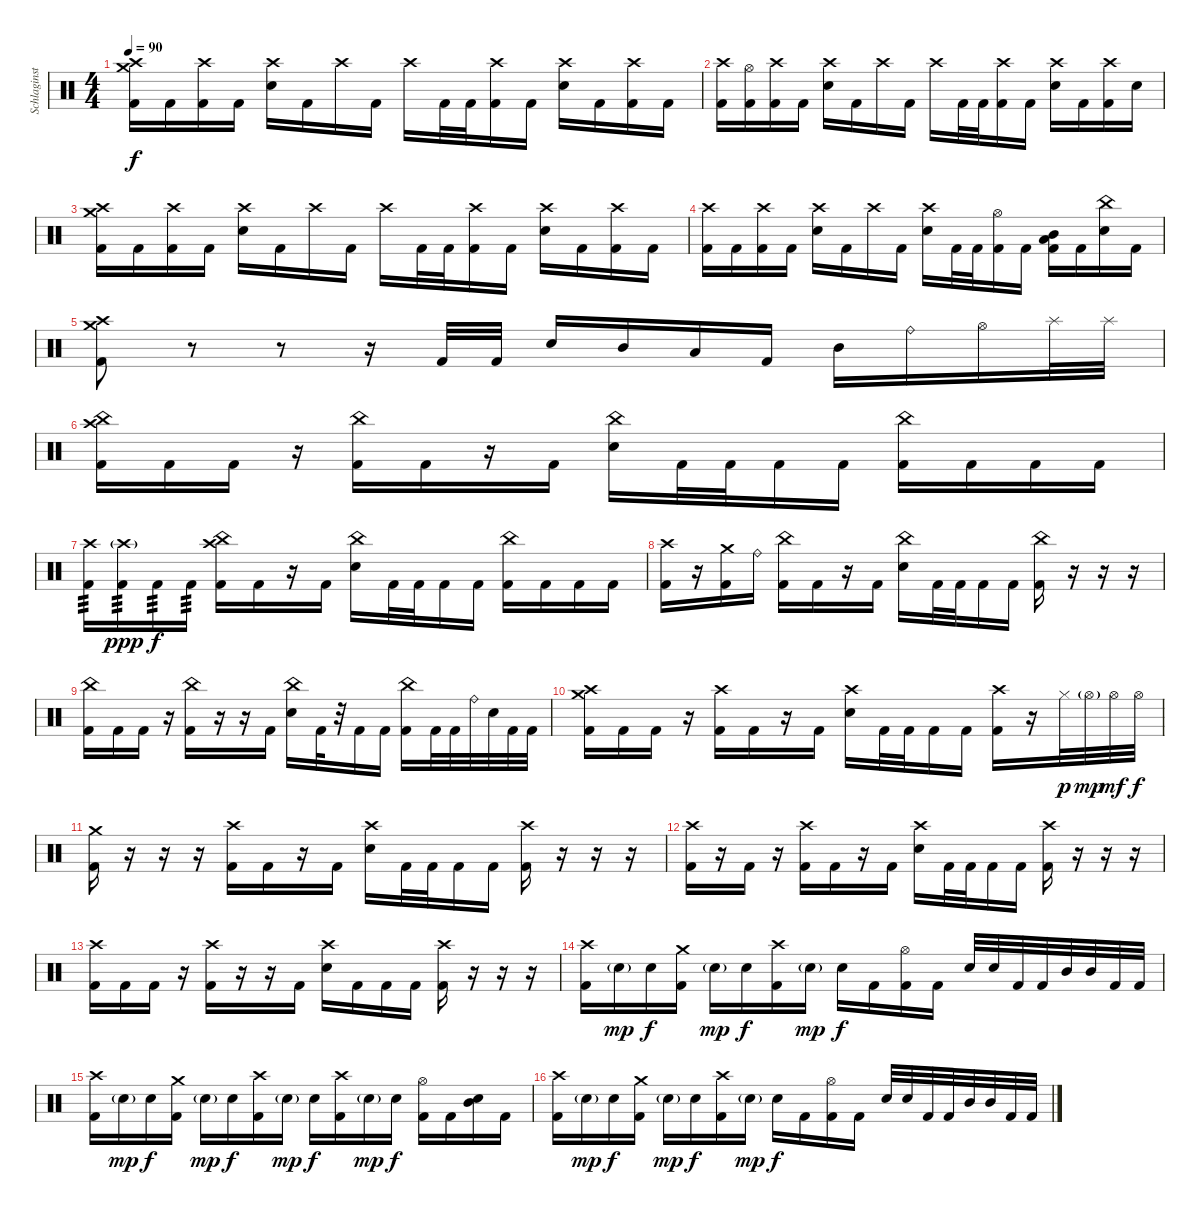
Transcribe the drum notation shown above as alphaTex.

\track ("Schlaginstrumente - Auswahl" "Schlaginst") {instrument percussion}
\staff {score}
\articulation defaults
\ts (4 4)
\tempo 90
\clef neutral
\ks c
("Crash high (hit)" "Crash medium (hit)" "Kick (hit) 2").16{dy f} "Kick (hit) 2".16 ("Crash high (hit)" "Kick (hit) 2").16 "Kick (hit) 2".16 ("Crash high (hit)" "Electric Snare (hit)").16 "Kick (hit) 2".16 "Crash high (hit)".16 "Kick (hit) 2".16 "Crash high (hit)".16 "Kick (hit) 2".32 "Kick (hit) 2".32 ("Crash high (hit)" "Kick (hit) 2").16 "Kick (hit) 2".16 ("Crash high (hit)" "Electric Snare (hit)").16 "Kick (hit) 2".16 ("Crash high (hit)" "Kick (hit) 2").16 "Kick (hit) 2".16 |
("Crash high (hit)" "Kick (hit) 2").16 ("Hi-Hat (open)" "Kick (hit) 2").16 ("Crash high (hit)" "Kick (hit) 2").16 "Kick (hit) 2".16 ("Crash high (hit)" "Electric Snare (hit)").16 "Kick (hit) 2".16 "Crash high (hit)".16 "Kick (hit) 2".16 "Crash high (hit)".16 "Kick (hit) 2".32 "Kick (hit) 2".32 ("Crash high (hit)" "Kick (hit) 2").16 "Kick (hit) 2".16 ("Crash high (hit)" "Electric Snare (hit)").16 "Kick (hit) 2".16 ("Crash high (hit)" "Kick (hit) 2").16 "Electric Snare (hit)".16 |
("Crash high (hit)" "Crash medium (hit)" "Kick (hit) 2").16 "Kick (hit) 2".16 ("Crash high (hit)" "Kick (hit) 2").16 "Kick (hit) 2".16 ("Crash high (hit)" "Electric Snare (hit)").16 "Kick (hit) 2".16 "Crash high (hit)".16 "Kick (hit) 2".16 "Crash high (hit)".16 "Kick (hit) 2".32 "Kick (hit) 2".32 ("Crash high (hit)" "Kick (hit) 2").16 "Kick (hit) 2".16 ("Crash high (hit)" "Electric Snare (hit)").16 "Kick (hit) 2".16 ("Crash high (hit)" "Kick (hit) 2").16 "Kick (hit) 2".16 |
("Crash high (hit)" "Kick (hit) 2").16 "Kick (hit) 2".16 ("Crash high (hit)" "Kick (hit) 2").16 "Kick (hit) 2".16 ("Crash high (hit)" "Electric Snare (hit)").16 "Kick (hit) 2".16 "Crash high (hit)".16 "Kick (hit) 2".16 ("Crash high (hit)" "Electric Snare (hit)").16 "Kick (hit) 2".32 "Kick (hit) 2".32 ("Hi-Hat (open)" "Kick (hit) 2").16 "Kick (hit) 2".16 ("Mid Tom (hit)" "Low Tom (hit)" "Kick (hit) 2").16 "Kick (hit) 2".16 ("China (hit)" "Electric Snare (hit)").16 "Kick (hit) 2".16 |
("Crash high (hit)" "Crash medium (hit)" "Kick (hit) 2").8 r.8 r.8 r.16 "Kick (hit) 2".32 "Kick (hit) 2".32 "Electric Snare (hit)".16 "Mid Tom (hit)".16 "Low Tom (hit)".16 "Kick (hit) 2".16 "Mid Tom (hit)".16 "Ride (bell)".16 "Hi-Hat (open)".16 "Splash (hit)".32 "Splash (hit)".32 |
("Crash high (hit)" "China (hit)" "Kick (hit) 2").16 "Kick (hit) 2".16 "Kick (hit) 2".16 r.16 ("China (hit)" "Kick (hit) 2").16 "Kick (hit) 2".16 r.16 "Kick (hit) 2".16 ("China (hit)" "Electric Snare (hit)").16 "Kick (hit) 2".32 "Kick (hit) 2".32 "Kick (hit) 2".16 "Kick (hit) 2".16 ("China (hit)" "Kick (hit) 2").16 "Kick (hit) 2".16 "Kick (hit) 2".16 "Kick (hit) 2".16 |
("Crash high (hit)" "Kick (hit) 2").16{tp 3} ("Crash high (hit)"{g} "Kick (hit) 2").16{tp 3 dy ppp} "Kick (hit) 2".16{tp 3 dy f} "Kick (hit) 2".16{tp 3} ("Crash high (hit)" "China (hit)" "Kick (hit) 2").16 "Kick (hit) 2".16 r.16 "Kick (hit) 2".16 ("China (hit)" "Electric Snare (hit)").16 "Kick (hit) 2".32 "Kick (hit) 2".32 "Kick (hit) 2".16 "Kick (hit) 2".16 ("China (hit)" "Kick (hit) 2").16 "Kick (hit) 2".16 "Kick (hit) 2".16 "Kick (hit) 2".16 |
("Crash high (hit)" "Kick (hit) 2").16 r.16 ("Crash medium (hit)" "Kick (hit) 2").16 "Ride (bell)".16 ("China (hit)" "Kick (hit) 2").16 "Kick (hit) 2".16 r.16 "Kick (hit) 2".16 ("China (hit)" "Electric Snare (hit)").16 "Kick (hit) 2".32 "Kick (hit) 2".32 "Kick (hit) 2".16 "Kick (hit) 2".16 ("China (hit)" "Kick (hit) 2").16 r.16 r.16 r.16 |
("China (hit)" "Kick (hit) 2").16 "Kick (hit) 2".16 "Kick (hit) 2".16 r.16 ("China (hit)" "Kick (hit) 2").16 r.16 r.16 "Kick (hit) 2".16 ("China (hit)" "Electric Snare (hit)").16 "Kick (hit) 2".32 r.32 "Kick (hit) 2".16 "Kick (hit) 2".16 ("China (hit)" "Kick (hit) 2").16 "Kick (hit) 2".32 "Kick (hit) 2".32 "Ride (bell)".32 "Electric Snare (hit)".32 "Kick (hit) 2".32 "Kick (hit) 2".32 |
("Crash high (hit)" "Crash medium (hit)" "Kick (hit) 2").16 "Kick (hit) 2".16 "Kick (hit) 2".16 r.16 ("Crash high (hit)" "Kick (hit) 2").16 "Kick (hit) 2".16 r.16 "Kick (hit) 2".16 ("Crash high (hit)" "Electric Snare (hit)").16 "Kick (hit) 2".32 "Kick (hit) 2".32 "Kick (hit) 2".16 "Kick (hit) 2".16 ("Crash high (hit)" "Kick (hit) 2").16 r.16 "Hi-Hat (closed)".32{dy p} "Hi-Hat (open)"{g}.32{dy mp} "Hi-Hat (open)".32{dy mf} "Hi-Hat (open)".32{dy f} |
("Crash medium (hit)" "Kick (hit) 2").16 r.16 r.16 r.16 ("Crash high (hit)" "Kick (hit) 2").16 "Kick (hit) 2".16 r.16 "Kick (hit) 2".16 ("Crash high (hit)" "Electric Snare (hit)").16 "Kick (hit) 2".32 "Kick (hit) 2".32 "Kick (hit) 2".16 "Kick (hit) 2".16 ("Crash high (hit)" "Kick (hit) 2").16 r.16 r.16 r.16 |
("Crash high (hit)" "Kick (hit) 2").16 r.16 "Kick (hit) 2".16 r.16 ("Crash high (hit)" "Kick (hit) 2").16 "Kick (hit) 2".16 r.16 "Kick (hit) 2".16 ("Crash high (hit)" "Electric Snare (hit)").16 "Kick (hit) 2".32 "Kick (hit) 2".32 "Kick (hit) 2".16 "Kick (hit) 2".16 ("Crash high (hit)" "Kick (hit) 2").16 r.16 r.16 r.16 |
("Crash high (hit)" "Kick (hit) 2").16 "Kick (hit) 2".16 "Kick (hit) 2".16 r.16 ("Crash high (hit)" "Kick (hit) 2").16 r.16 r.16 "Kick (hit) 2".16 ("Crash high (hit)" "Electric Snare (hit)").16 "Kick (hit) 2".16 "Kick (hit) 2".16 "Kick (hit) 2".16 ("Crash high (hit)" "Kick (hit) 2").16 r.16 r.16 r.16 |
("Crash high (hit)" "Kick (hit) 2").16 "Electric Snare (hit)"{g}.16{dy mp} "Electric Snare (hit)".16{dy f} ("Crash medium (hit)" "Kick (hit) 2").16 "Electric Snare (hit)"{g}.16{dy mp} "Electric Snare (hit)".16{dy f} ("Crash high (hit)" "Kick (hit) 2").16 "Electric Snare (hit)"{g}.16{dy mp} "Electric Snare (hit)".16{dy f} "Kick (hit) 2".16 ("Hi-Hat (open)" "Kick (hit) 2").16 "Kick (hit) 2".16 "Electric Snare (hit)".32 "Electric Snare (hit)".32 "Kick (hit) 2".32 "Kick (hit) 2".32 "Mid Tom (hit)".32 "Mid Tom (hit)".32 "Kick (hit) 2".32 "Kick (hit) 2".32 |
("Crash high (hit)" "Kick (hit) 2").16 "Electric Snare (hit)"{g}.16{dy mp} "Electric Snare (hit)".16{dy f} ("Crash medium (hit)" "Kick (hit) 2").16 "Electric Snare (hit)"{g}.16{dy mp} "Electric Snare (hit)".16{dy f} ("Crash high (hit)" "Kick (hit) 2").16 "Electric Snare (hit)"{g}.16{dy mp} "Electric Snare (hit)".16{dy f} ("Crash high (hit)" "Kick (hit) 2").16 "Electric Snare (hit)"{g}.16{dy mp} "Electric Snare (hit)".16{dy f} ("Hi-Hat (open)" "Kick (hit) 2").16 "Kick (hit) 2".16 ("Mid Tom (hit)" "Electric Snare (hit)").16 "Kick (hit) 2".16 |
("Crash high (hit)" "Kick (hit) 2").16 "Electric Snare (hit)"{g}.16{dy mp} "Electric Snare (hit)".16{dy f} ("Crash medium (hit)" "Kick (hit) 2").16 "Electric Snare (hit)"{g}.16{dy mp} "Electric Snare (hit)".16{dy f} ("Crash high (hit)" "Kick (hit) 2").16 "Electric Snare (hit)"{g}.16{dy mp} "Electric Snare (hit)".16{dy f} "Kick (hit) 2".16 ("Hi-Hat (open)" "Kick (hit) 2").16 "Kick (hit) 2".16 "Electric Snare (hit)".32 "Electric Snare (hit)".32 "Kick (hit) 2".32 "Kick (hit) 2".32 "Mid Tom (hit)".32 "Mid Tom (hit)".32 "Kick (hit) 2".32 "Kick (hit) 2".32
